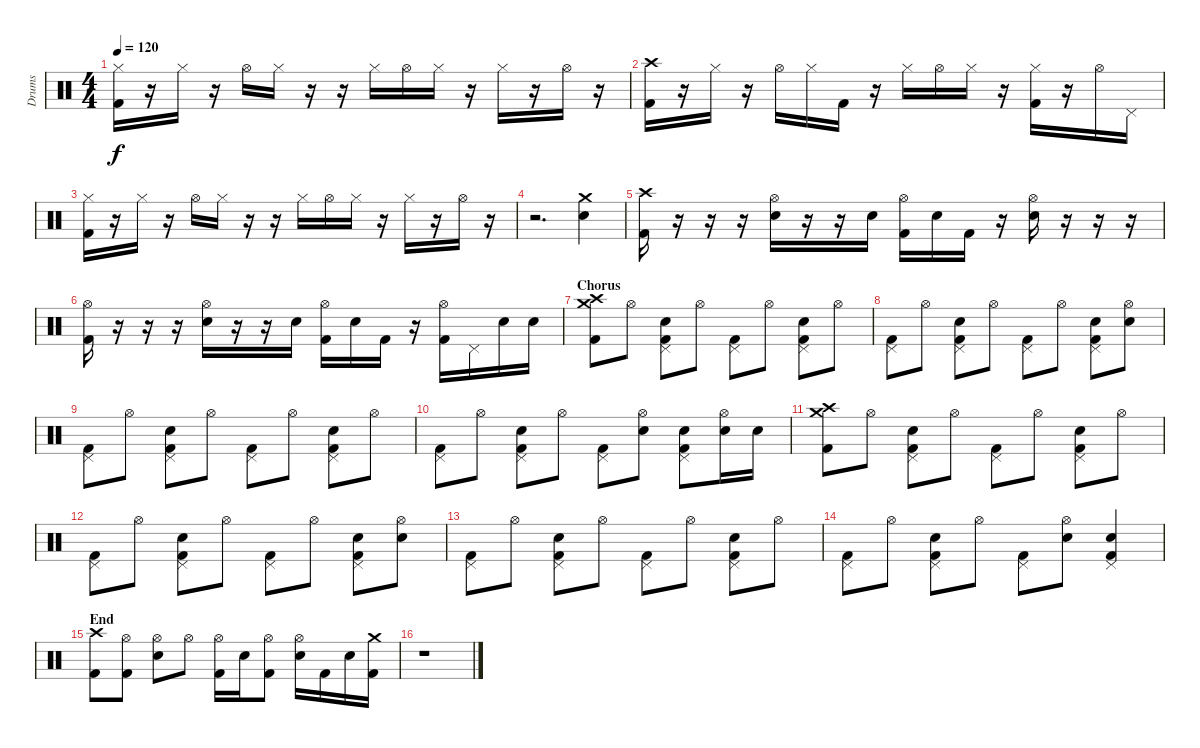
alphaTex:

\track ("Drums" "Drums") {instrument percussion}
\staff {score}
\articulation defaults
\ts (4 4)
\tempo 120
\clef neutral
\ks c
("Hi-Hat (closed)" "Kick (hit) 2").16{dy f} r.16 "Hi-Hat (closed)".16 r.16 "Hi-Hat (open)".16 "Hi-Hat (closed)".16 r.16 r.16 "Hi-Hat (closed)".16 "Hi-Hat (open)".16 "Hi-Hat (closed)".16 r.16 "Hi-Hat (closed)".16 r.16 "Hi-Hat (open)".16 r.16 |
("Crash high (hit)" "Kick (hit) 2").16 r.16 "Hi-Hat (closed)".16 r.16 "Hi-Hat (open)".16 "Hi-Hat (closed)".16 "Kick (hit) 2".16 r.16 "Hi-Hat (closed)".16 "Hi-Hat (open)".16 "Hi-Hat (closed)".16 r.16 ("Hi-Hat (closed)" "Kick (hit) 2").16 r.16 "Hi-Hat (open)".16 "Pedal Hi-Hat (hit)".16 |
("Hi-Hat (closed)" "Kick (hit) 2").16 r.16 "Hi-Hat (closed)".16 r.16 "Hi-Hat (open)".16 "Hi-Hat (closed)".16 r.16 r.16 "Hi-Hat (closed)".16 "Hi-Hat (open)".16 "Hi-Hat (closed)".16 r.16 "Hi-Hat (closed)".16 r.16 "Hi-Hat (open)".16 r.16 |
r.2{d} ("Crash medium (hit)" "Snare (hit) 2").4 |
("Crash high (hit)" "Kick (hit) 2").16 r.16 r.16 r.16 ("Hi-Hat (open)" "Snare (hit) 2").16 r.16 r.16 "Snare (hit) 2".16 ("Hi-Hat (open)" "Kick (hit) 2").16 "Snare (hit) 2".16 "Kick (hit) 2".16 r.16 ("Hi-Hat (open)" "Snare (hit) 2").16 r.16 r.16 r.16 |
("Hi-Hat (open)" "Kick (hit) 2").16 r.16 r.16 r.16 ("Hi-Hat (open)" "Snare (hit) 2").16 r.16 r.16 "Snare (hit) 2".16 ("Hi-Hat (open)" "Kick (hit) 2").16 "Snare (hit) 2".16 "Kick (hit) 2".16 r.16 ("Hi-Hat (open)" "Kick (hit) 2").16 "Pedal Hi-Hat (hit)".16 "Snare (hit) 2".16 "Snare (hit) 2".16 |
\section ("" "Chorus")
("Crash high (hit)" "Crash medium (hit)" "Kick (hit) 2").8 "Hi-Hat (open)".8 ("Pedal Hi-Hat (hit)" "Snare (hit) 2" "Kick (hit) 2").8 "Hi-Hat (open)".8 ("Pedal Hi-Hat (hit)" "Kick (hit) 2").8 "Hi-Hat (open)".8 ("Pedal Hi-Hat (hit)" "Snare (hit) 2" "Kick (hit) 2").8 "Hi-Hat (open)".8 |
("Pedal Hi-Hat (hit)" "Kick (hit) 2").8 "Hi-Hat (open)".8 ("Pedal Hi-Hat (hit)" "Snare (hit) 2" "Kick (hit) 2").8 "Hi-Hat (open)".8 ("Pedal Hi-Hat (hit)" "Kick (hit) 2").8 "Hi-Hat (open)".8 ("Pedal Hi-Hat (hit)" "Snare (hit) 2" "Kick (hit) 2").8 ("Hi-Hat (open)" "Snare (hit) 2").8 |
("Pedal Hi-Hat (hit)" "Kick (hit) 2").8 "Hi-Hat (open)".8 ("Pedal Hi-Hat (hit)" "Snare (hit) 2" "Kick (hit) 2").8 "Hi-Hat (open)".8 ("Pedal Hi-Hat (hit)" "Kick (hit) 2").8 "Hi-Hat (open)".8 ("Pedal Hi-Hat (hit)" "Snare (hit) 2" "Kick (hit) 2").8 "Hi-Hat (open)".8 |
("Pedal Hi-Hat (hit)" "Kick (hit) 2").8 "Hi-Hat (open)".8 ("Pedal Hi-Hat (hit)" "Snare (hit) 2" "Kick (hit) 2").8 "Hi-Hat (open)".8 ("Pedal Hi-Hat (hit)" "Kick (hit) 2").8 ("Hi-Hat (open)" "Snare (hit) 2").8 ("Pedal Hi-Hat (hit)" "Snare (hit) 2" "Kick (hit) 2").8 ("Hi-Hat (open)" "Snare (hit) 2").16 "Snare (hit) 2".16 |
("Crash high (hit)" "Crash medium (hit)" "Kick (hit) 2").8 "Hi-Hat (open)".8 ("Pedal Hi-Hat (hit)" "Snare (hit) 2" "Kick (hit) 2").8 "Hi-Hat (open)".8 ("Pedal Hi-Hat (hit)" "Kick (hit) 2").8 "Hi-Hat (open)".8 ("Pedal Hi-Hat (hit)" "Snare (hit) 2" "Kick (hit) 2").8 "Hi-Hat (open)".8 |
("Pedal Hi-Hat (hit)" "Kick (hit) 2").8 "Hi-Hat (open)".8 ("Pedal Hi-Hat (hit)" "Snare (hit) 2" "Kick (hit) 2").8 "Hi-Hat (open)".8 ("Pedal Hi-Hat (hit)" "Kick (hit) 2").8 "Hi-Hat (open)".8 ("Pedal Hi-Hat (hit)" "Snare (hit) 2" "Kick (hit) 2").8 ("Hi-Hat (open)" "Snare (hit) 2").8 |
("Pedal Hi-Hat (hit)" "Kick (hit) 2").8 "Hi-Hat (open)".8 ("Pedal Hi-Hat (hit)" "Snare (hit) 2" "Kick (hit) 2").8 "Hi-Hat (open)".8 ("Pedal Hi-Hat (hit)" "Kick (hit) 2").8 "Hi-Hat (open)".8 ("Pedal Hi-Hat (hit)" "Snare (hit) 2" "Kick (hit) 2").8 "Hi-Hat (open)".8 |
("Pedal Hi-Hat (hit)" "Kick (hit) 2").8 "Hi-Hat (open)".8 ("Pedal Hi-Hat (hit)" "Snare (hit) 2" "Kick (hit) 2").8 "Hi-Hat (open)".8 ("Pedal Hi-Hat (hit)" "Kick (hit) 2").8 ("Hi-Hat (open)" "Snare (hit) 2").8 ("Pedal Hi-Hat (hit)" "Snare (hit) 2" "Kick (hit) 2").4 |
\section ("" "End")
("Crash high (hit)" "Kick (hit) 2").8 ("Hi-Hat (open)" "Kick (hit) 2").8 ("Hi-Hat (open)" "Snare (hit) 2").8 "Hi-Hat (open)".8 ("Hi-Hat (open)" "Kick (hit) 2").16 "Snare (hit) 2".16 ("Hi-Hat (open)" "Kick (hit) 2").8 ("Hi-Hat (open)" "Snare (hit) 2").16 "Kick (hit) 2".16 "Snare (hit) 2".16 ("Crash medium (hit)" "Kick (hit) 2").16 |
r.1
